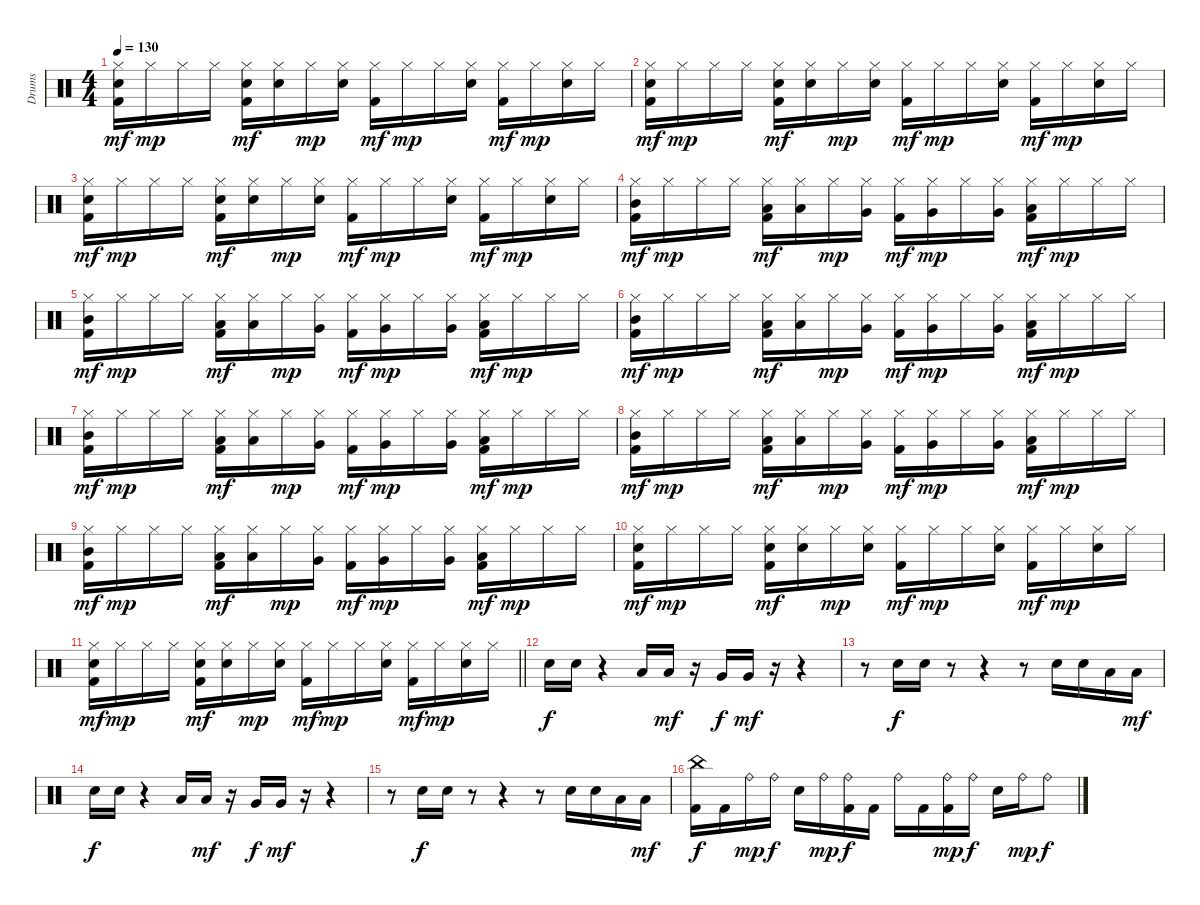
\track ("Drums" "Drums") {instrument percussion}
\staff {score}
\articulation defaults
\ts (4 4)
\tempo 130
\clef neutral
\ks c
("Kick (hit) 2" "Hi-Hat (closed)" "Electric Snare (hit)").16{dy mf} "Hi-Hat (closed)".16{dy mp} "Hi-Hat (closed)".16 "Hi-Hat (closed)".16 ("Kick (hit) 2" "Hi-Hat (closed)" "Electric Snare (hit)").16{dy mf} ("Hi-Hat (closed)" "Electric Snare (hit)").16 "Hi-Hat (closed)".16{dy mp} ("Hi-Hat (closed)" "Electric Snare (hit)").16 ("Kick (hit) 2" "Hi-Hat (closed)").16{dy mf} "Hi-Hat (closed)".16{dy mp} "Hi-Hat (closed)".16 ("Hi-Hat (closed)" "Electric Snare (hit)").16 ("Kick (hit) 2" "Hi-Hat (closed)").16{dy mf} "Hi-Hat (closed)".16{dy mp} ("Hi-Hat (closed)" "Electric Snare (hit)").16 "Hi-Hat (closed)".16 |
("Kick (hit) 2" "Hi-Hat (closed)" "Electric Snare (hit)").16{dy mf} "Hi-Hat (closed)".16{dy mp} "Hi-Hat (closed)".16 "Hi-Hat (closed)".16 ("Kick (hit) 2" "Hi-Hat (closed)" "Electric Snare (hit)").16{dy mf} ("Hi-Hat (closed)" "Electric Snare (hit)").16 "Hi-Hat (closed)".16{dy mp} ("Hi-Hat (closed)" "Electric Snare (hit)").16 ("Kick (hit) 2" "Hi-Hat (closed)").16{dy mf} "Hi-Hat (closed)".16{dy mp} "Hi-Hat (closed)".16 ("Hi-Hat (closed)" "Electric Snare (hit)").16 ("Kick (hit) 2" "Hi-Hat (closed)").16{dy mf} "Hi-Hat (closed)".16{dy mp} ("Hi-Hat (closed)" "Electric Snare (hit)").16 "Hi-Hat (closed)".16 |
("Kick (hit) 2" "Hi-Hat (closed)" "Electric Snare (hit)").16{dy mf} "Hi-Hat (closed)".16{dy mp} "Hi-Hat (closed)".16 "Hi-Hat (closed)".16 ("Kick (hit) 2" "Hi-Hat (closed)" "Electric Snare (hit)").16{dy mf} ("Hi-Hat (closed)" "Electric Snare (hit)").16 "Hi-Hat (closed)".16{dy mp} ("Hi-Hat (closed)" "Electric Snare (hit)").16 ("Kick (hit) 2" "Hi-Hat (closed)").16{dy mf} "Hi-Hat (closed)".16{dy mp} "Hi-Hat (closed)".16 ("Hi-Hat (closed)" "Electric Snare (hit)").16 ("Kick (hit) 2" "Hi-Hat (closed)").16{dy mf} "Hi-Hat (closed)".16{dy mp} ("Hi-Hat (closed)" "Electric Snare (hit)").16 "Hi-Hat (closed)".16 |
("Kick (hit) 2" "Hi-Hat (closed)" "Mid Tom (hit)").16{dy mf} "Hi-Hat (closed)".16{dy mp} "Hi-Hat (closed)".16 "Hi-Hat (closed)".16 ("Kick (hit) 2" "Hi-Hat (closed)" "Low Tom (hit)").16{dy mf} ("Hi-Hat (closed)" "Low Tom (hit)").16 "Hi-Hat (closed)".16{dy mp} ("Hi-Hat (closed)" "Very Low Tom (hit)").16 ("Kick (hit) 2" "Hi-Hat (closed)").16{dy mf} ("Very Low Tom (hit)" "Hi-Hat (closed)").16{dy mp} "Hi-Hat (closed)".16 ("Very Low Tom (hit)" "Hi-Hat (closed)").16 ("Kick (hit) 2" "Low Floor Tom (hit)" "Hi-Hat (closed)").16{dy mf} "Hi-Hat (closed)".16{dy mp} "Hi-Hat (closed)".16 "Hi-Hat (closed)".16 |
("Kick (hit) 2" "Hi-Hat (closed)" "Mid Tom (hit)").16{dy mf} "Hi-Hat (closed)".16{dy mp} "Hi-Hat (closed)".16 "Hi-Hat (closed)".16 ("Kick (hit) 2" "Hi-Hat (closed)" "Low Tom (hit)").16{dy mf} ("Hi-Hat (closed)" "Low Tom (hit)").16 "Hi-Hat (closed)".16{dy mp} ("Hi-Hat (closed)" "Very Low Tom (hit)").16 ("Kick (hit) 2" "Hi-Hat (closed)").16{dy mf} ("Very Low Tom (hit)" "Hi-Hat (closed)").16{dy mp} "Hi-Hat (closed)".16 ("Very Low Tom (hit)" "Hi-Hat (closed)").16 ("Kick (hit) 2" "Low Floor Tom (hit)" "Hi-Hat (closed)").16{dy mf} "Hi-Hat (closed)".16{dy mp} "Hi-Hat (closed)".16 "Hi-Hat (closed)".16 |
("Kick (hit) 2" "Hi-Hat (closed)" "Mid Tom (hit)").16{dy mf} "Hi-Hat (closed)".16{dy mp} "Hi-Hat (closed)".16 "Hi-Hat (closed)".16 ("Kick (hit) 2" "Hi-Hat (closed)" "Low Tom (hit)").16{dy mf} ("Hi-Hat (closed)" "Low Tom (hit)").16 "Hi-Hat (closed)".16{dy mp} ("Hi-Hat (closed)" "Very Low Tom (hit)").16 ("Kick (hit) 2" "Hi-Hat (closed)").16{dy mf} ("Very Low Tom (hit)" "Hi-Hat (closed)").16{dy mp} "Hi-Hat (closed)".16 ("Very Low Tom (hit)" "Hi-Hat (closed)").16 ("Kick (hit) 2" "Low Floor Tom (hit)" "Hi-Hat (closed)").16{dy mf} "Hi-Hat (closed)".16{dy mp} "Hi-Hat (closed)".16 "Hi-Hat (closed)".16 |
("Kick (hit) 2" "Hi-Hat (closed)" "Mid Tom (hit)").16{dy mf} "Hi-Hat (closed)".16{dy mp} "Hi-Hat (closed)".16 "Hi-Hat (closed)".16 ("Kick (hit) 2" "Hi-Hat (closed)" "Low Tom (hit)").16{dy mf} ("Hi-Hat (closed)" "Low Tom (hit)").16 "Hi-Hat (closed)".16{dy mp} ("Hi-Hat (closed)" "Very Low Tom (hit)").16 ("Kick (hit) 2" "Hi-Hat (closed)").16{dy mf} ("Very Low Tom (hit)" "Hi-Hat (closed)").16{dy mp} "Hi-Hat (closed)".16 ("Very Low Tom (hit)" "Hi-Hat (closed)").16 ("Kick (hit) 2" "Low Floor Tom (hit)" "Hi-Hat (closed)").16{dy mf} "Hi-Hat (closed)".16{dy mp} "Hi-Hat (closed)".16 "Hi-Hat (closed)".16 |
("Kick (hit) 2" "Hi-Hat (closed)" "Mid Tom (hit)").16{dy mf} "Hi-Hat (closed)".16{dy mp} "Hi-Hat (closed)".16 "Hi-Hat (closed)".16 ("Kick (hit) 2" "Hi-Hat (closed)" "Low Tom (hit)").16{dy mf} ("Hi-Hat (closed)" "Low Tom (hit)").16 "Hi-Hat (closed)".16{dy mp} ("Hi-Hat (closed)" "Very Low Tom (hit)").16 ("Kick (hit) 2" "Hi-Hat (closed)").16{dy mf} ("Very Low Tom (hit)" "Hi-Hat (closed)").16{dy mp} "Hi-Hat (closed)".16 ("Very Low Tom (hit)" "Hi-Hat (closed)").16 ("Kick (hit) 2" "Low Floor Tom (hit)" "Hi-Hat (closed)").16{dy mf} "Hi-Hat (closed)".16{dy mp} "Hi-Hat (closed)".16 "Hi-Hat (closed)".16 |
("Kick (hit) 2" "Hi-Hat (closed)" "Mid Tom (hit)").16{dy mf} "Hi-Hat (closed)".16{dy mp} "Hi-Hat (closed)".16 "Hi-Hat (closed)".16 ("Kick (hit) 2" "Hi-Hat (closed)" "Low Tom (hit)").16{dy mf} ("Hi-Hat (closed)" "Low Tom (hit)").16 "Hi-Hat (closed)".16{dy mp} ("Hi-Hat (closed)" "Very Low Tom (hit)").16 ("Kick (hit) 2" "Hi-Hat (closed)").16{dy mf} ("Very Low Tom (hit)" "Hi-Hat (closed)").16{dy mp} "Hi-Hat (closed)".16 ("Very Low Tom (hit)" "Hi-Hat (closed)").16 ("Kick (hit) 2" "Low Floor Tom (hit)" "Hi-Hat (closed)").16{dy mf} "Hi-Hat (closed)".16{dy mp} "Hi-Hat (closed)".16 "Hi-Hat (closed)".16 |
("Kick (hit) 2" "Hi-Hat (closed)" "Electric Snare (hit)").16{dy mf} "Hi-Hat (closed)".16{dy mp} "Hi-Hat (closed)".16 "Hi-Hat (closed)".16 ("Kick (hit) 2" "Hi-Hat (closed)" "Electric Snare (hit)").16{dy mf} ("Hi-Hat (closed)" "Electric Snare (hit)").16 "Hi-Hat (closed)".16{dy mp} ("Hi-Hat (closed)" "Electric Snare (hit)").16 ("Kick (hit) 2" "Hi-Hat (closed)").16{dy mf} "Hi-Hat (closed)".16{dy mp} "Hi-Hat (closed)".16 ("Hi-Hat (closed)" "Electric Snare (hit)").16 ("Kick (hit) 2" "Hi-Hat (closed)").16{dy mf} "Hi-Hat (closed)".16{dy mp} ("Hi-Hat (closed)" "Electric Snare (hit)").16 "Hi-Hat (closed)".16 |
\barLineRight lightlight
("Kick (hit) 2" "Hi-Hat (closed)" "Electric Snare (hit)").16{dy mf} "Hi-Hat (closed)".16{dy mp} "Hi-Hat (closed)".16 "Hi-Hat (closed)".16 ("Kick (hit) 2" "Hi-Hat (closed)" "Electric Snare (hit)").16{dy mf} ("Hi-Hat (closed)" "Electric Snare (hit)").16 "Hi-Hat (closed)".16{dy mp} ("Hi-Hat (closed)" "Electric Snare (hit)").16 ("Kick (hit) 2" "Hi-Hat (closed)").16{dy mf} "Hi-Hat (closed)".16{dy mp} "Hi-Hat (closed)".16 ("Hi-Hat (closed)" "Electric Snare (hit)").16 ("Kick (hit) 2" "Hi-Hat (closed)").16{dy mf} "Hi-Hat (closed)".16{dy mp} ("Hi-Hat (closed)" "Electric Snare (hit)").16 "Hi-Hat (closed)".16 |
"Electric Snare (hit)".16{dy f} "Electric Snare (hit)".16 r.4 "Low Tom (hit)".16 "Low Tom (hit)".16{dy mf} r.16 "Very Low Tom (hit)".16{dy f} "Very Low Tom (hit)".16{dy mf} r.16 r.4 |
r.8 "Electric Snare (hit)".16{dy f} "Electric Snare (hit)".16 r.8 r.4 r.8 "Electric Snare (hit)".16 "Electric Snare (hit)".16 "Low Tom (hit)".16 "Low Tom (hit)".16{dy mf} |
"Electric Snare (hit)".16{dy f} "Electric Snare (hit)".16 r.4 "Low Tom (hit)".16 "Low Tom (hit)".16{dy mf} r.16 "Very Low Tom (hit)".16{dy f} "Very Low Tom (hit)".16{dy mf} r.16 r.4 |
r.8 "Electric Snare (hit)".16{dy f} "Electric Snare (hit)".16 r.8 r.4 r.8 "Electric Snare (hit)".16 "Electric Snare (hit)".16 "Low Tom (hit)".16 "Low Tom (hit)".16{dy mf} |
("Kick (hit) 2" "China (hit)").16{dy f} "Kick (hit) 2".16 "Ride (bell)".16{dy mp} "Ride (bell)".16{dy f} "Electric Snare (hit)".16 "Ride (bell)".16{dy mp} ("Kick (hit) 2" "Ride (bell)").16{dy f} "Kick (hit) 2".16 "Ride (bell)".16 "Kick (hit) 2".16 ("Kick (hit) 2" "Ride (bell)").16{dy mp} "Ride (bell)".16{dy f} "Electric Snare (hit)".16 "Ride (bell)".16{dy mp} "Ride (bell)".8{dy f}
